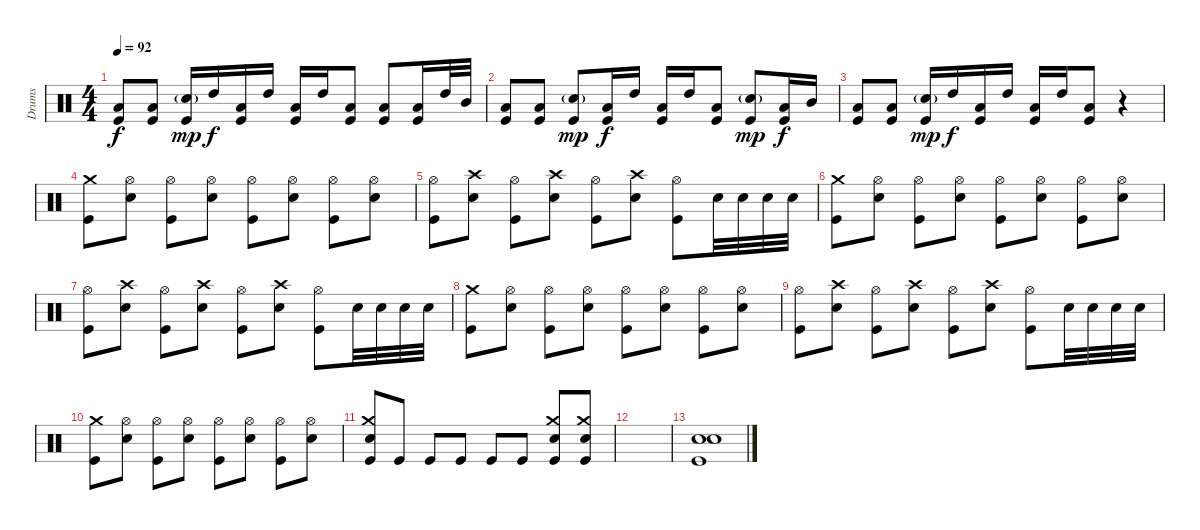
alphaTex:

\track ("Drums" "Drums") {instrument percussion}
\staff {score}
\articulation defaults
\ts (4 4)
\tempo 92
\clef neutral
\ks c
("Low Tom (hit)" "Kick (hit)").8{dy f} ("Low Tom (hit)" "Kick (hit)").8 ("Snare (hit) 2"{g} "Kick (hit)").16{dy mp} "High Tom (hit)".16{dy f} ("Low Tom (hit)" "Kick (hit)").16 "High Tom (hit)".16 ("Low Tom (hit)" "Kick (hit)").16 "High Tom (hit)".16 ("Low Tom (hit)" "Kick (hit)").8 ("Low Tom (hit)" "Kick (hit)").8 ("Low Tom (hit)" "Kick (hit)").16 "High Tom (hit)".32 "Mid Tom (hit)".32 |
("Low Tom (hit)" "Kick (hit)").8 ("Low Tom (hit)" "Kick (hit)").8 ("Snare (hit) 2"{g} "Kick (hit)").8{dy mp} ("Low Tom (hit)" "Kick (hit)").16{dy f} "High Tom (hit)".16 ("Low Tom (hit)" "Kick (hit)").16 "High Tom (hit)".16 ("Low Tom (hit)" "Kick (hit)").8 ("Snare (hit) 2"{g} "Kick (hit)").8{dy mp} ("Low Tom (hit)" "Kick (hit)").16{dy f} "Mid Tom (hit)".16 |
("Low Tom (hit)" "Kick (hit)").8 ("Low Tom (hit)" "Kick (hit)").8 ("Snare (hit) 2"{g} "Kick (hit)").16{dy mp} "High Tom (hit)".16{dy f} ("Low Tom (hit)" "Kick (hit)").16 "High Tom (hit)".16 ("Low Tom (hit)" "Kick (hit)").16 "High Tom (hit)".16 ("Low Tom (hit)" "Kick (hit)").8 r.4 |
("Crash medium (hit)" "Kick (hit)").8 ("Hi-Hat (open)" "Electric Snare (hit)").8 ("Hi-Hat (open)" "Kick (hit)").8 ("Hi-Hat (open)" "Electric Snare (hit)").8 ("Hi-Hat (open)" "Kick (hit)").8 ("Hi-Hat (open)" "Electric Snare (hit)").8 ("Hi-Hat (open)" "Kick (hit)").8 ("Hi-Hat (open)" "Electric Snare (hit)").8 |
("Hi-Hat (open)" "Kick (hit)").8 ("Crash high (hit)" "Electric Snare (hit)").8 ("Hi-Hat (open)" "Kick (hit)").8 ("Crash high (hit)" "Electric Snare (hit)").8 ("Hi-Hat (open)" "Kick (hit)").8 ("Crash high (hit)" "Electric Snare (hit)").8 ("Hi-Hat (open)" "Kick (hit)").8 "Electric Snare (hit)".32 "Electric Snare (hit)".32 "Electric Snare (hit)".32 "Electric Snare (hit)".32 |
("Crash medium (hit)" "Kick (hit)").8 ("Hi-Hat (open)" "Electric Snare (hit)").8 ("Hi-Hat (open)" "Kick (hit)").8 ("Hi-Hat (open)" "Electric Snare (hit)").8 ("Hi-Hat (open)" "Kick (hit)").8 ("Hi-Hat (open)" "Electric Snare (hit)").8 ("Hi-Hat (open)" "Kick (hit)").8 ("Hi-Hat (open)" "Electric Snare (hit)").8 |
("Hi-Hat (open)" "Kick (hit)").8 ("Crash high (hit)" "Electric Snare (hit)").8 ("Hi-Hat (open)" "Kick (hit)").8 ("Crash high (hit)" "Electric Snare (hit)").8 ("Hi-Hat (open)" "Kick (hit)").8 ("Crash high (hit)" "Electric Snare (hit)").8 ("Hi-Hat (open)" "Kick (hit)").8 "Electric Snare (hit)".32 "Electric Snare (hit)".32 "Electric Snare (hit)".32 "Electric Snare (hit)".32 |
("Crash medium (hit)" "Kick (hit)").8 ("Hi-Hat (open)" "Electric Snare (hit)").8 ("Hi-Hat (open)" "Kick (hit)").8 ("Hi-Hat (open)" "Electric Snare (hit)").8 ("Hi-Hat (open)" "Kick (hit)").8 ("Hi-Hat (open)" "Electric Snare (hit)").8 ("Hi-Hat (open)" "Kick (hit)").8 ("Hi-Hat (open)" "Electric Snare (hit)").8 |
("Hi-Hat (open)" "Kick (hit)").8 ("Crash high (hit)" "Electric Snare (hit)").8 ("Hi-Hat (open)" "Kick (hit)").8 ("Crash high (hit)" "Electric Snare (hit)").8 ("Hi-Hat (open)" "Kick (hit)").8 ("Crash high (hit)" "Electric Snare (hit)").8 ("Hi-Hat (open)" "Kick (hit)").8 "Electric Snare (hit)".32 "Electric Snare (hit)".32 "Electric Snare (hit)".32 "Electric Snare (hit)".32 |
("Crash medium (hit)" "Kick (hit)").8 ("Hi-Hat (open)" "Electric Snare (hit)").8 ("Hi-Hat (open)" "Kick (hit)").8 ("Hi-Hat (open)" "Electric Snare (hit)").8 ("Hi-Hat (open)" "Kick (hit)").8 ("Hi-Hat (open)" "Electric Snare (hit)").8 ("Hi-Hat (open)" "Kick (hit)").8 ("Hi-Hat (open)" "Electric Snare (hit)").8 |
("Crash medium (hit)" "Electric Snare (hit)" "Kick (hit)").8 "Kick (hit)".8 "Kick (hit)".8 "Kick (hit)".8 "Kick (hit)".8 "Kick (hit)".8 ("Crash medium (hit)" "Electric Snare (hit)" "Kick (hit)").8 ("Crash medium (hit)" "Electric Snare (hit)" "Kick (hit)").8 |
|
("Electric Snare (hit)" "Electric Snare (hit)" "Kick (hit)").1
